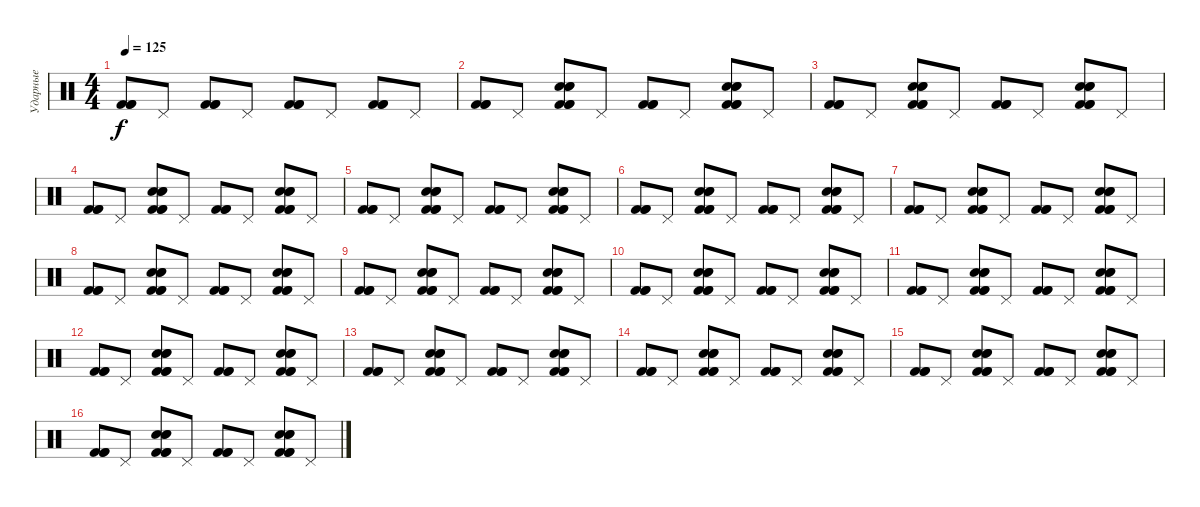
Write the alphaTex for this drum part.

\track ("Ударные" "Ударные") {instrument percussion}
\staff {score}
\articulation defaults
\ts (4 4)
\tempo 125
\clef neutral
\ks c
("Kick (hit) 2" "Kick (hit) 2" "Kick (hit) 2").8{dy f} "Pedal Hi-Hat (hit)".8 ("Kick (hit) 2" "Kick (hit) 2" "Kick (hit) 2").8 "Pedal Hi-Hat (hit)".8 ("Kick (hit) 2" "Kick (hit) 2" "Kick (hit) 2").8 "Pedal Hi-Hat (hit)".8 ("Kick (hit) 2" "Kick (hit) 2" "Kick (hit) 2").8 "Pedal Hi-Hat (hit)".8 |
("Kick (hit) 2" "Kick (hit) 2" "Kick (hit) 2").8 "Pedal Hi-Hat (hit)".8 ("Snare (hit) 2" "Kick (hit) 2" "Snare (hit) 2" "Kick (hit) 2" "Snare (hit) 2" "Kick (hit) 2").8 "Pedal Hi-Hat (hit)".8 ("Kick (hit) 2" "Kick (hit) 2" "Kick (hit) 2").8 "Pedal Hi-Hat (hit)".8 ("Snare (hit) 2" "Kick (hit) 2" "Snare (hit) 2" "Kick (hit) 2" "Snare (hit) 2" "Kick (hit) 2").8 "Pedal Hi-Hat (hit)".8 |
("Kick (hit) 2" "Kick (hit) 2" "Kick (hit) 2").8 "Pedal Hi-Hat (hit)".8 ("Snare (hit) 2" "Kick (hit) 2" "Snare (hit) 2" "Kick (hit) 2" "Snare (hit) 2" "Kick (hit) 2").8 "Pedal Hi-Hat (hit)".8 ("Kick (hit) 2" "Kick (hit) 2" "Kick (hit) 2").8 "Pedal Hi-Hat (hit)".8 ("Snare (hit) 2" "Kick (hit) 2" "Snare (hit) 2" "Kick (hit) 2" "Snare (hit) 2" "Kick (hit) 2").8 "Pedal Hi-Hat (hit)".8 |
("Kick (hit) 2" "Kick (hit) 2" "Kick (hit) 2").8 "Pedal Hi-Hat (hit)".8 ("Snare (hit) 2" "Kick (hit) 2" "Snare (hit) 2" "Kick (hit) 2" "Snare (hit) 2" "Kick (hit) 2").8 "Pedal Hi-Hat (hit)".8 ("Kick (hit) 2" "Kick (hit) 2" "Kick (hit) 2").8 "Pedal Hi-Hat (hit)".8 ("Snare (hit) 2" "Kick (hit) 2" "Snare (hit) 2" "Kick (hit) 2" "Snare (hit) 2" "Kick (hit) 2").8 "Pedal Hi-Hat (hit)".8 |
("Kick (hit) 2" "Kick (hit) 2" "Kick (hit) 2").8 "Pedal Hi-Hat (hit)".8 ("Snare (hit) 2" "Kick (hit) 2" "Snare (hit) 2" "Kick (hit) 2" "Snare (hit) 2" "Kick (hit) 2").8 "Pedal Hi-Hat (hit)".8 ("Kick (hit) 2" "Kick (hit) 2" "Kick (hit) 2").8 "Pedal Hi-Hat (hit)".8 ("Snare (hit) 2" "Kick (hit) 2" "Snare (hit) 2" "Kick (hit) 2" "Snare (hit) 2" "Kick (hit) 2").8 "Pedal Hi-Hat (hit)".8 |
("Kick (hit) 2" "Kick (hit) 2" "Kick (hit) 2").8 "Pedal Hi-Hat (hit)".8 ("Snare (hit) 2" "Kick (hit) 2" "Snare (hit) 2" "Kick (hit) 2" "Snare (hit) 2" "Kick (hit) 2").8 "Pedal Hi-Hat (hit)".8 ("Kick (hit) 2" "Kick (hit) 2" "Kick (hit) 2").8 "Pedal Hi-Hat (hit)".8 ("Snare (hit) 2" "Kick (hit) 2" "Snare (hit) 2" "Kick (hit) 2" "Snare (hit) 2" "Kick (hit) 2").8 "Pedal Hi-Hat (hit)".8 |
("Kick (hit) 2" "Kick (hit) 2" "Kick (hit) 2").8 "Pedal Hi-Hat (hit)".8 ("Snare (hit) 2" "Kick (hit) 2" "Snare (hit) 2" "Kick (hit) 2" "Snare (hit) 2" "Kick (hit) 2").8 "Pedal Hi-Hat (hit)".8 ("Kick (hit) 2" "Kick (hit) 2" "Kick (hit) 2").8 "Pedal Hi-Hat (hit)".8 ("Snare (hit) 2" "Kick (hit) 2" "Snare (hit) 2" "Kick (hit) 2" "Snare (hit) 2" "Kick (hit) 2").8 "Pedal Hi-Hat (hit)".8 |
("Kick (hit) 2" "Kick (hit) 2" "Kick (hit) 2").8 "Pedal Hi-Hat (hit)".8 ("Snare (hit) 2" "Kick (hit) 2" "Snare (hit) 2" "Kick (hit) 2" "Snare (hit) 2" "Kick (hit) 2").8 "Pedal Hi-Hat (hit)".8 ("Kick (hit) 2" "Kick (hit) 2" "Kick (hit) 2").8 "Pedal Hi-Hat (hit)".8 ("Snare (hit) 2" "Kick (hit) 2" "Snare (hit) 2" "Kick (hit) 2" "Snare (hit) 2" "Kick (hit) 2").8 "Pedal Hi-Hat (hit)".8 |
("Kick (hit) 2" "Kick (hit) 2" "Kick (hit) 2").8 "Pedal Hi-Hat (hit)".8 ("Snare (hit) 2" "Kick (hit) 2" "Snare (hit) 2" "Kick (hit) 2" "Snare (hit) 2" "Kick (hit) 2").8 "Pedal Hi-Hat (hit)".8 ("Kick (hit) 2" "Kick (hit) 2" "Kick (hit) 2").8 "Pedal Hi-Hat (hit)".8 ("Snare (hit) 2" "Kick (hit) 2" "Snare (hit) 2" "Kick (hit) 2" "Snare (hit) 2" "Kick (hit) 2").8 "Pedal Hi-Hat (hit)".8 |
("Kick (hit) 2" "Kick (hit) 2" "Kick (hit) 2").8 "Pedal Hi-Hat (hit)".8 ("Snare (hit) 2" "Kick (hit) 2" "Snare (hit) 2" "Kick (hit) 2" "Snare (hit) 2" "Kick (hit) 2").8 "Pedal Hi-Hat (hit)".8 ("Kick (hit) 2" "Kick (hit) 2" "Kick (hit) 2").8 "Pedal Hi-Hat (hit)".8 ("Snare (hit) 2" "Kick (hit) 2" "Snare (hit) 2" "Kick (hit) 2" "Snare (hit) 2" "Kick (hit) 2").8 "Pedal Hi-Hat (hit)".8 |
("Kick (hit) 2" "Kick (hit) 2" "Kick (hit) 2").8 "Pedal Hi-Hat (hit)".8 ("Snare (hit) 2" "Kick (hit) 2" "Snare (hit) 2" "Kick (hit) 2" "Snare (hit) 2" "Kick (hit) 2").8 "Pedal Hi-Hat (hit)".8 ("Kick (hit) 2" "Kick (hit) 2" "Kick (hit) 2").8 "Pedal Hi-Hat (hit)".8 ("Snare (hit) 2" "Kick (hit) 2" "Snare (hit) 2" "Kick (hit) 2" "Snare (hit) 2" "Kick (hit) 2").8 "Pedal Hi-Hat (hit)".8 |
("Kick (hit) 2" "Kick (hit) 2" "Kick (hit) 2").8 "Pedal Hi-Hat (hit)".8 ("Snare (hit) 2" "Kick (hit) 2" "Snare (hit) 2" "Kick (hit) 2" "Snare (hit) 2" "Kick (hit) 2").8 "Pedal Hi-Hat (hit)".8 ("Kick (hit) 2" "Kick (hit) 2" "Kick (hit) 2").8 "Pedal Hi-Hat (hit)".8 ("Snare (hit) 2" "Kick (hit) 2" "Snare (hit) 2" "Kick (hit) 2" "Snare (hit) 2" "Kick (hit) 2").8 "Pedal Hi-Hat (hit)".8 |
("Kick (hit) 2" "Kick (hit) 2" "Kick (hit) 2").8 "Pedal Hi-Hat (hit)".8 ("Snare (hit) 2" "Kick (hit) 2" "Snare (hit) 2" "Kick (hit) 2" "Snare (hit) 2" "Kick (hit) 2").8 "Pedal Hi-Hat (hit)".8 ("Kick (hit) 2" "Kick (hit) 2" "Kick (hit) 2").8 "Pedal Hi-Hat (hit)".8 ("Snare (hit) 2" "Kick (hit) 2" "Snare (hit) 2" "Kick (hit) 2" "Snare (hit) 2" "Kick (hit) 2").8 "Pedal Hi-Hat (hit)".8 |
("Kick (hit) 2" "Kick (hit) 2" "Kick (hit) 2").8 "Pedal Hi-Hat (hit)".8 ("Snare (hit) 2" "Kick (hit) 2" "Snare (hit) 2" "Kick (hit) 2" "Snare (hit) 2" "Kick (hit) 2").8 "Pedal Hi-Hat (hit)".8 ("Kick (hit) 2" "Kick (hit) 2" "Kick (hit) 2").8 "Pedal Hi-Hat (hit)".8 ("Snare (hit) 2" "Kick (hit) 2" "Snare (hit) 2" "Kick (hit) 2" "Snare (hit) 2" "Kick (hit) 2").8 "Pedal Hi-Hat (hit)".8 |
("Kick (hit) 2" "Kick (hit) 2" "Kick (hit) 2").8 "Pedal Hi-Hat (hit)".8 ("Snare (hit) 2" "Kick (hit) 2" "Snare (hit) 2" "Kick (hit) 2" "Snare (hit) 2" "Kick (hit) 2").8 "Pedal Hi-Hat (hit)".8 ("Kick (hit) 2" "Kick (hit) 2" "Kick (hit) 2").8 "Pedal Hi-Hat (hit)".8 ("Snare (hit) 2" "Kick (hit) 2" "Snare (hit) 2" "Kick (hit) 2" "Snare (hit) 2" "Kick (hit) 2").8 "Pedal Hi-Hat (hit)".8 |
("Kick (hit) 2" "Kick (hit) 2" "Kick (hit) 2").8 "Pedal Hi-Hat (hit)".8 ("Snare (hit) 2" "Kick (hit) 2" "Snare (hit) 2" "Kick (hit) 2" "Snare (hit) 2" "Kick (hit) 2").8 "Pedal Hi-Hat (hit)".8 ("Kick (hit) 2" "Kick (hit) 2" "Kick (hit) 2").8 "Pedal Hi-Hat (hit)".8 ("Snare (hit) 2" "Kick (hit) 2" "Snare (hit) 2" "Kick (hit) 2" "Snare (hit) 2" "Kick (hit) 2").8 "Pedal Hi-Hat (hit)".8
